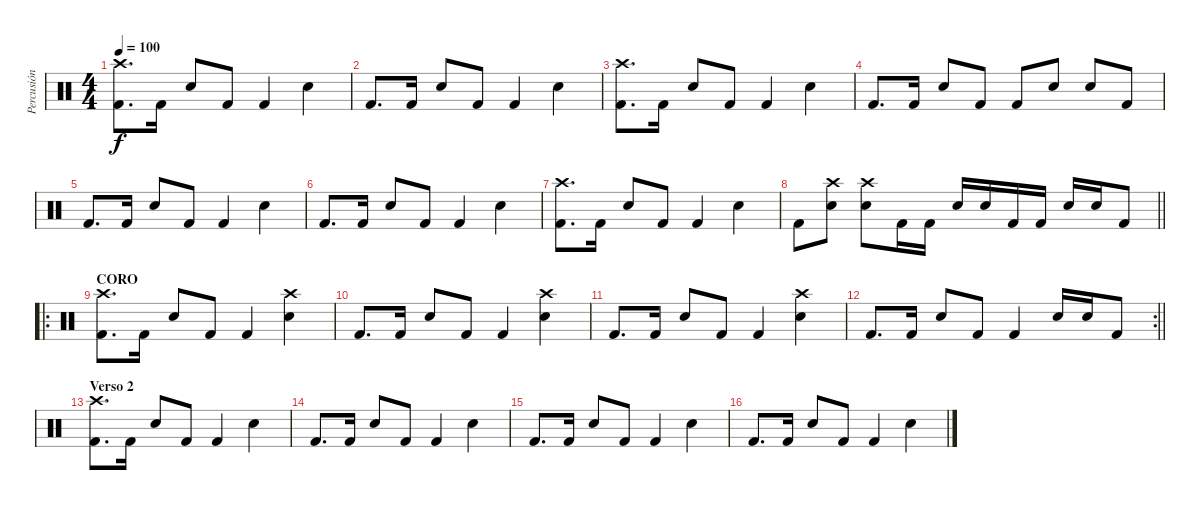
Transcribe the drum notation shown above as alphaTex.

\track ("Percusión" "Percusión") {instrument percussion}
\staff {score}
\articulation defaults
\ts (4 4)
\tempo 100
\clef neutral
\ks c
("Crash high (hit)" "Kick (hit) 2").8{d dy f} "Kick (hit) 2".16 "Electric Snare (hit)".8 "Kick (hit) 2".8 "Kick (hit) 2".4 "Electric Snare (hit)".4 |
"Kick (hit) 2".8{d} "Kick (hit) 2".16 "Electric Snare (hit)".8 "Kick (hit) 2".8 "Kick (hit) 2".4 "Electric Snare (hit)".4 |
("Crash high (hit)" "Kick (hit) 2").8{d} "Kick (hit) 2".16 "Electric Snare (hit)".8 "Kick (hit) 2".8 "Kick (hit) 2".4 "Electric Snare (hit)".4 |
"Kick (hit) 2".8{d} "Kick (hit) 2".16 "Electric Snare (hit)".8 "Kick (hit) 2".8 "Kick (hit) 2".8 "Electric Snare (hit)".8 "Electric Snare (hit)".8 "Kick (hit) 2".8 |
"Kick (hit) 2".8{d} "Kick (hit) 2".16 "Electric Snare (hit)".8 "Kick (hit) 2".8 "Kick (hit) 2".4 "Electric Snare (hit)".4 |
"Kick (hit) 2".8{d} "Kick (hit) 2".16 "Electric Snare (hit)".8 "Kick (hit) 2".8 "Kick (hit) 2".4 "Electric Snare (hit)".4 |
("Crash high (hit)" "Kick (hit) 2").8{d} "Kick (hit) 2".16 "Electric Snare (hit)".8 "Kick (hit) 2".8 "Kick (hit) 2".4 "Electric Snare (hit)".4 |
\barLineRight lightlight "Kick (hit) 2".8
("Crash high (hit)" "Electric Snare (hit)").8 ("Crash high (hit)" "Electric Snare (hit)").8 "Kick (hit) 2".16 "Kick (hit) 2".16 "Electric Snare (hit)".16 "Electric Snare (hit)".16 "Kick (hit) 2".16 "Kick (hit) 2".16 "Electric Snare (hit)".16 "Electric Snare (hit)".16 "Kick (hit) 2".8 |
\ro
\section ("" "CORO")
("Crash high (hit)" "Kick (hit) 2").8{d} "Kick (hit) 2".16 "Electric Snare (hit)".8 "Kick (hit) 2".8 "Kick (hit) 2".4 ("Crash high (hit)" "Electric Snare (hit)").4 |
"Kick (hit) 2".8{d} "Kick (hit) 2".16 "Electric Snare (hit)".8 "Kick (hit) 2".8 "Kick (hit) 2".4 ("Crash high (hit)" "Electric Snare (hit)").4 |
"Kick (hit) 2".8{d} "Kick (hit) 2".16 "Electric Snare (hit)".8 "Kick (hit) 2".8 "Kick (hit) 2".4 ("Crash high (hit)" "Electric Snare (hit)").4 |
\rc 2
\barLineRight lightlight "Kick (hit) 2".8{d} "Kick (hit) 2".16 "Electric Snare (hit)".8 "Kick (hit) 2".8 "Kick (hit) 2".4 "Electric Snare (hit)".16 "Electric Snare (hit)".16 "Kick (hit) 2".8
|
\section ("" "Verso 2")
("Crash high (hit)" "Kick (hit) 2").8{d} "Kick (hit) 2".16 "Electric Snare (hit)".8 "Kick (hit) 2".8 "Kick (hit) 2".4 "Electric Snare (hit)".4 |
"Kick (hit) 2".8{d} "Kick (hit) 2".16 "Electric Snare (hit)".8 "Kick (hit) 2".8 "Kick (hit) 2".4 "Electric Snare (hit)".4 |
"Kick (hit) 2".8{d} "Kick (hit) 2".16 "Electric Snare (hit)".8 "Kick (hit) 2".8 "Kick (hit) 2".4 "Electric Snare (hit)".4 |
"Kick (hit) 2".8{d} "Kick (hit) 2".16 "Electric Snare (hit)".8 "Kick (hit) 2".8 "Kick (hit) 2".4 "Electric Snare (hit)".4
